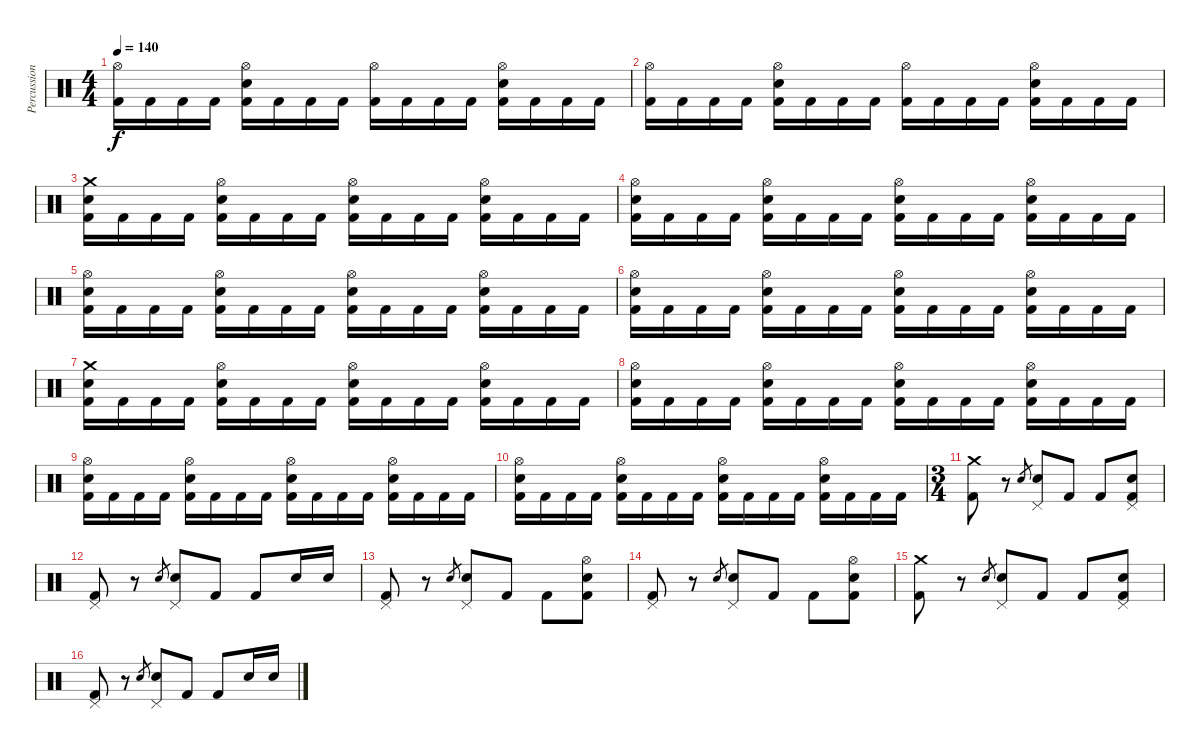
\track ("Percussion" "Percussion") {instrument percussion}
\staff {score}
\articulation defaults
\ts (4 4)
\tempo 140
\clef neutral
\ks c
("Hi-Hat (open)" "Kick (hit) 2").16{dy f} "Kick (hit) 2".16 "Kick (hit) 2".16 "Kick (hit) 2".16 ("Hi-Hat (open)" "Electric Snare (hit)" "Kick (hit) 2").16 "Kick (hit) 2".16 "Kick (hit) 2".16 "Kick (hit) 2".16 ("Hi-Hat (open)" "Kick (hit) 2").16 "Kick (hit) 2".16 "Kick (hit) 2".16 "Kick (hit) 2".16 ("Hi-Hat (open)" "Electric Snare (hit)" "Kick (hit) 2").16 "Kick (hit) 2".16 "Kick (hit) 2".16 "Kick (hit) 2".16 |
("Hi-Hat (open)" "Kick (hit) 2").16 "Kick (hit) 2".16 "Kick (hit) 2".16 "Kick (hit) 2".16 ("Hi-Hat (open)" "Electric Snare (hit)" "Kick (hit) 2").16 "Kick (hit) 2".16 "Kick (hit) 2".16 "Kick (hit) 2".16 ("Hi-Hat (open)" "Kick (hit) 2").16 "Kick (hit) 2".16 "Kick (hit) 2".16 "Kick (hit) 2".16 ("Hi-Hat (open)" "Electric Snare (hit)" "Kick (hit) 2").16 "Kick (hit) 2".16 "Kick (hit) 2".16 "Kick (hit) 2".16 |
("Crash medium (hit)" "Electric Snare (hit)" "Kick (hit) 2").16 "Kick (hit) 2".16 "Kick (hit) 2".16 "Kick (hit) 2".16 ("Hi-Hat (open)" "Electric Snare (hit)" "Kick (hit) 2").16 "Kick (hit) 2".16 "Kick (hit) 2".16 "Kick (hit) 2".16 ("Hi-Hat (open)" "Electric Snare (hit)" "Kick (hit) 2").16 "Kick (hit) 2".16 "Kick (hit) 2".16 "Kick (hit) 2".16 ("Hi-Hat (open)" "Electric Snare (hit)" "Kick (hit) 2").16 "Kick (hit) 2".16 "Kick (hit) 2".16 "Kick (hit) 2".16 |
("Hi-Hat (open)" "Electric Snare (hit)" "Kick (hit) 2").16 "Kick (hit) 2".16 "Kick (hit) 2".16 "Kick (hit) 2".16 ("Hi-Hat (open)" "Electric Snare (hit)" "Kick (hit) 2").16 "Kick (hit) 2".16 "Kick (hit) 2".16 "Kick (hit) 2".16 ("Hi-Hat (open)" "Electric Snare (hit)" "Kick (hit) 2").16 "Kick (hit) 2".16 "Kick (hit) 2".16 "Kick (hit) 2".16 ("Hi-Hat (open)" "Electric Snare (hit)" "Kick (hit) 2").16 "Kick (hit) 2".16 "Kick (hit) 2".16 "Kick (hit) 2".16 |
("Hi-Hat (open)" "Electric Snare (hit)" "Kick (hit) 2").16 "Kick (hit) 2".16 "Kick (hit) 2".16 "Kick (hit) 2".16 ("Hi-Hat (open)" "Electric Snare (hit)" "Kick (hit) 2").16 "Kick (hit) 2".16 "Kick (hit) 2".16 "Kick (hit) 2".16 ("Hi-Hat (open)" "Electric Snare (hit)" "Kick (hit) 2").16 "Kick (hit) 2".16 "Kick (hit) 2".16 "Kick (hit) 2".16 ("Hi-Hat (open)" "Electric Snare (hit)" "Kick (hit) 2").16 "Kick (hit) 2".16 "Kick (hit) 2".16 "Kick (hit) 2".16 |
("Hi-Hat (open)" "Electric Snare (hit)" "Kick (hit) 2").16 "Kick (hit) 2".16 "Kick (hit) 2".16 "Kick (hit) 2".16 ("Hi-Hat (open)" "Electric Snare (hit)" "Kick (hit) 2").16 "Kick (hit) 2".16 "Kick (hit) 2".16 "Kick (hit) 2".16 ("Hi-Hat (open)" "Electric Snare (hit)" "Kick (hit) 2").16 "Kick (hit) 2".16 "Kick (hit) 2".16 "Kick (hit) 2".16 ("Hi-Hat (open)" "Electric Snare (hit)" "Kick (hit) 2").16 "Kick (hit) 2".16 "Kick (hit) 2".16 "Kick (hit) 2".16 |
("Crash medium (hit)" "Electric Snare (hit)" "Kick (hit) 2").16 "Kick (hit) 2".16 "Kick (hit) 2".16 "Kick (hit) 2".16 ("Hi-Hat (open)" "Electric Snare (hit)" "Kick (hit) 2").16 "Kick (hit) 2".16 "Kick (hit) 2".16 "Kick (hit) 2".16 ("Hi-Hat (open)" "Electric Snare (hit)" "Kick (hit) 2").16 "Kick (hit) 2".16 "Kick (hit) 2".16 "Kick (hit) 2".16 ("Hi-Hat (open)" "Electric Snare (hit)" "Kick (hit) 2").16 "Kick (hit) 2".16 "Kick (hit) 2".16 "Kick (hit) 2".16 |
("Hi-Hat (open)" "Electric Snare (hit)" "Kick (hit) 2").16 "Kick (hit) 2".16 "Kick (hit) 2".16 "Kick (hit) 2".16 ("Hi-Hat (open)" "Electric Snare (hit)" "Kick (hit) 2").16 "Kick (hit) 2".16 "Kick (hit) 2".16 "Kick (hit) 2".16 ("Hi-Hat (open)" "Electric Snare (hit)" "Kick (hit) 2").16 "Kick (hit) 2".16 "Kick (hit) 2".16 "Kick (hit) 2".16 ("Hi-Hat (open)" "Electric Snare (hit)" "Kick (hit) 2").16 "Kick (hit) 2".16 "Kick (hit) 2".16 "Kick (hit) 2".16 |
("Hi-Hat (open)" "Electric Snare (hit)" "Kick (hit) 2").16 "Kick (hit) 2".16 "Kick (hit) 2".16 "Kick (hit) 2".16 ("Hi-Hat (open)" "Electric Snare (hit)" "Kick (hit) 2").16 "Kick (hit) 2".16 "Kick (hit) 2".16 "Kick (hit) 2".16 ("Hi-Hat (open)" "Electric Snare (hit)" "Kick (hit) 2").16 "Kick (hit) 2".16 "Kick (hit) 2".16 "Kick (hit) 2".16 ("Hi-Hat (open)" "Electric Snare (hit)" "Kick (hit) 2").16 "Kick (hit) 2".16 "Kick (hit) 2".16 "Kick (hit) 2".16 |
("Hi-Hat (open)" "Electric Snare (hit)" "Kick (hit) 2").16 "Kick (hit) 2".16 "Kick (hit) 2".16 "Kick (hit) 2".16 ("Hi-Hat (open)" "Electric Snare (hit)" "Kick (hit) 2").16 "Kick (hit) 2".16 "Kick (hit) 2".16 "Kick (hit) 2".16 ("Hi-Hat (open)" "Electric Snare (hit)" "Kick (hit) 2").16 "Kick (hit) 2".16 "Kick (hit) 2".16 "Kick (hit) 2".16 ("Hi-Hat (open)" "Electric Snare (hit)" "Kick (hit) 2").16 "Kick (hit) 2".16 "Kick (hit) 2".16 "Kick (hit) 2".16 |
\ts (3 4)
("Crash medium (hit)" "Kick (hit) 2").8 r.8 "Electric Snare (hit)".8{gr} ("Pedal Hi-Hat (hit)" "Electric Snare (hit)").8 "Kick (hit) 2".8 "Kick (hit) 2".8 ("Pedal Hi-Hat (hit)" "Electric Snare (hit)" "Kick (hit) 2").8 |
("Pedal Hi-Hat (hit)" "Kick (hit) 2").8 r.8 "Electric Snare (hit)".8{gr} ("Pedal Hi-Hat (hit)" "Electric Snare (hit)").8 "Kick (hit) 2".8 "Kick (hit) 2".8 "Electric Snare (hit)".16 "Electric Snare (hit)".16 |
("Pedal Hi-Hat (hit)" "Kick (hit) 2").8 r.8 "Electric Snare (hit)".8{gr} ("Pedal Hi-Hat (hit)" "Electric Snare (hit)").8 "Kick (hit) 2".8 "Kick (hit) 2".8 ("Hi-Hat (open)" "Electric Snare (hit)" "Kick (hit) 2").8 |
("Pedal Hi-Hat (hit)" "Kick (hit) 2").8 r.8 "Electric Snare (hit)".8{gr} ("Pedal Hi-Hat (hit)" "Electric Snare (hit)").8 "Kick (hit) 2".8 "Kick (hit) 2".8 ("Hi-Hat (open)" "Electric Snare (hit)" "Kick (hit) 2").8 |
("Crash medium (hit)" "Kick (hit) 2").8 r.8 "Electric Snare (hit)".8{gr} ("Pedal Hi-Hat (hit)" "Electric Snare (hit)").8 "Kick (hit) 2".8 "Kick (hit) 2".8 ("Pedal Hi-Hat (hit)" "Electric Snare (hit)" "Kick (hit) 2").8 |
("Pedal Hi-Hat (hit)" "Kick (hit) 2").8 r.8 "Electric Snare (hit)".8{gr} ("Pedal Hi-Hat (hit)" "Electric Snare (hit)").8 "Kick (hit) 2".8 "Kick (hit) 2".8 "Electric Snare (hit)".16 "Electric Snare (hit)".16
